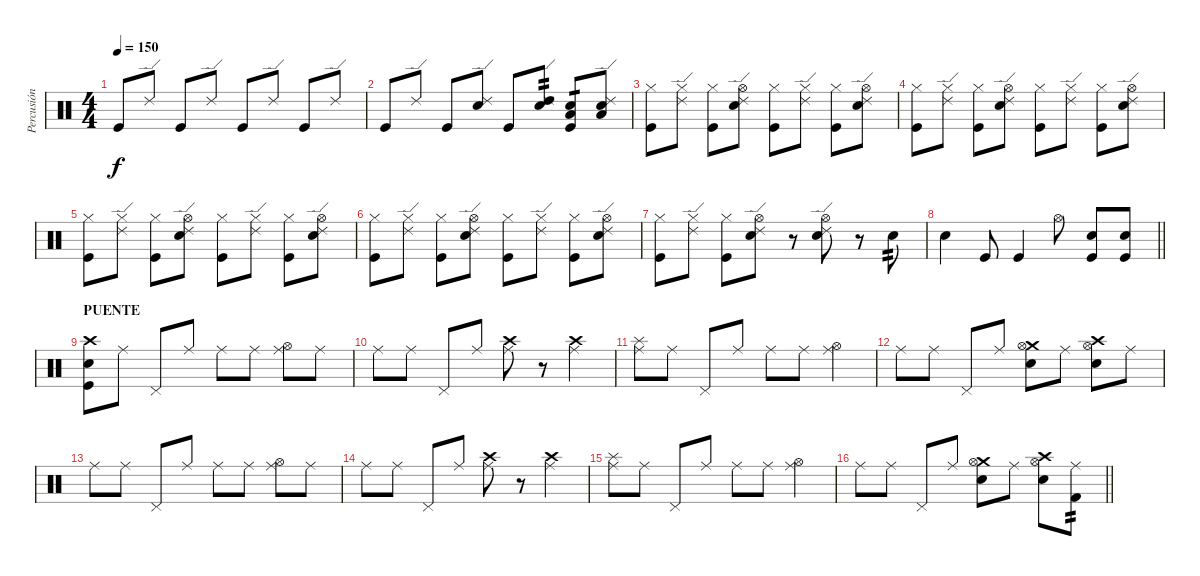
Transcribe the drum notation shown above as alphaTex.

\track ("Percusión" "Percusión") {instrument percussion}
\staff {score}
\articulation defaults
\ts (4 4)
\tempo 150
\clef neutral
\ks c "Kick (hit)".8{dy f} "Ride (edge) 2".8 "Kick (hit)".8 "Ride (edge) 2".8 "Kick (hit)".8 "Ride (edge) 2".8 "Kick (hit)".8 "Ride (edge) 2".8
|
"Kick (hit)".8 "Ride (edge) 2".8 "Kick (hit)".8 ("Ride (edge) 2" "Snare (hit) 2").8 "Kick (hit)".8 ("Ride (edge) 2" "High Tom (hit)" "Snare (hit) 2").8{tp 2} ("Low Tom (hit)" "Kick (hit)" "Snare (hit) 2").8{tp 1} ("Ride (edge) 2" "Low Floor Tom (hit)" "Snare (hit) 2").8 |
("Kick (hit)" "Hi-Hat (closed)").8 ("Ride (edge) 2" "Hi-Hat (closed)").8 ("Kick (hit)" "Hi-Hat (closed)").8 ("Ride (edge) 2" "Snare (hit) 2" "Hi-Hat (open)").8 ("Kick (hit)" "Hi-Hat (closed)").8 ("Ride (edge) 2" "Hi-Hat (closed)").8 ("Kick (hit)" "Hi-Hat (closed)").8 ("Ride (edge) 2" "Snare (hit) 2" "Hi-Hat (open)").8 |
("Kick (hit)" "Hi-Hat (closed)").8 ("Ride (edge) 2" "Hi-Hat (closed)").8 ("Kick (hit)" "Hi-Hat (closed)").8 ("Ride (edge) 2" "Snare (hit) 2" "Hi-Hat (open)").8 ("Kick (hit)" "Hi-Hat (closed)").8 ("Ride (edge) 2" "Hi-Hat (closed)").8 ("Kick (hit)" "Hi-Hat (closed)").8 ("Ride (edge) 2" "Snare (hit) 2" "Hi-Hat (open)").8 |
("Kick (hit)" "Hi-Hat (closed)").8 ("Ride (edge) 2" "Hi-Hat (closed)").8 ("Kick (hit)" "Hi-Hat (closed)").8 ("Ride (edge) 2" "Snare (hit) 2" "Hi-Hat (open)").8 ("Kick (hit)" "Hi-Hat (closed)").8 ("Ride (edge) 2" "Hi-Hat (closed)").8 ("Kick (hit)" "Hi-Hat (closed)").8 ("Ride (edge) 2" "Snare (hit) 2" "Hi-Hat (open)").8 |
("Kick (hit)" "Hi-Hat (closed)").8 ("Ride (edge) 2" "Hi-Hat (closed)").8 ("Kick (hit)" "Hi-Hat (closed)").8 ("Ride (edge) 2" "Snare (hit) 2" "Hi-Hat (open)").8 ("Kick (hit)" "Hi-Hat (closed)").8 ("Ride (edge) 2" "Hi-Hat (closed)").8 ("Kick (hit)" "Hi-Hat (closed)").8 ("Ride (edge) 2" "Snare (hit) 2" "Hi-Hat (open)").8 |
("Kick (hit)" "Hi-Hat (closed)").8 ("Ride (edge) 2" "Hi-Hat (closed)").8 ("Kick (hit)" "Hi-Hat (closed)").8 ("Ride (edge) 2" "Snare (hit) 2" "Hi-Hat (open)").8 r.8 ("Ride (edge) 2" "Snare (hit) 2" "Hi-Hat (open)").8 r.8 "Snare (hit) 2".8{tp 2} |
\barLineRight lightlight "Snare (hit) 2".4 "Kick (hit)".8 "Kick (hit)".4 "Hi-Hat (open)".8
("Kick (hit)" "Snare (hit) 2").8 ("Kick (hit)" "Snare (hit) 2").8 |
\section ("" "PUENTE")
("Crash high (hit)" "Kick (hit)" "Snare (hit) 2").8 "Ride (middle)".8 "Pedal Hi-Hat (hit)".8 "Ride (middle)".8 "Ride (middle)".8 "Ride (middle)".8 ("Hi-Hat (open)" "Ride (middle)").8 "Ride (middle)".8 |
"Ride (middle)".8 "Ride (middle)".8 "Pedal Hi-Hat (hit)".8 "Ride (middle)".8 ("Crash high (hit)" "Ride (middle)").8 r.8 ("Crash high (hit)" "Ride (middle)").4 |
("Splash (hit)" "Ride (middle)").8 "Ride (middle)".8 "Pedal Hi-Hat (hit)".8 "Ride (middle)".8 "Ride (middle)".8 "Ride (middle)".8 ("Hi-Hat (open)" "Ride (middle)").4 |
"Ride (middle)".8 "Ride (middle)".8 "Pedal Hi-Hat (hit)".8 "Ride (middle)".8 ("Snare (hit) 2" "Crash medium (hit)" "Hi-Hat (open)").8 "Ride (middle)".8 ("Snare (hit) 2" "Crash high (hit)" "Hi-Hat (open)").8 "Ride (middle)".8 |
"Ride (middle)".8 "Ride (middle)".8 "Pedal Hi-Hat (hit)".8 "Ride (middle)".8 "Ride (middle)".8 "Ride (middle)".8 ("Hi-Hat (open)" "Ride (middle)").8 "Ride (middle)".8 |
"Ride (middle)".8 "Ride (middle)".8 "Pedal Hi-Hat (hit)".8 "Ride (middle)".8 ("Crash high (hit)" "Ride (middle)").8 r.8 ("Crash high (hit)" "Ride (middle)").4 |
("Splash (hit)" "Ride (middle)").8 "Ride (middle)".8 "Pedal Hi-Hat (hit)".8 "Ride (middle)".8 "Ride (middle)".8 "Ride (middle)".8 ("Hi-Hat (open)" "Ride (middle)").4 |
\barLineRight lightlight "Ride (middle)".8 "Ride (middle)".8 "Pedal Hi-Hat (hit)".8 "Ride (middle)".8
("Snare (hit) 2" "Crash medium (hit)" "Hi-Hat (open)").8 "Ride (middle)".8 ("Snare (hit) 2" "Crash high (hit)" "Hi-Hat (open)").8 ("Kick (hit) 2" "Ride (middle)").8{tp 2}
